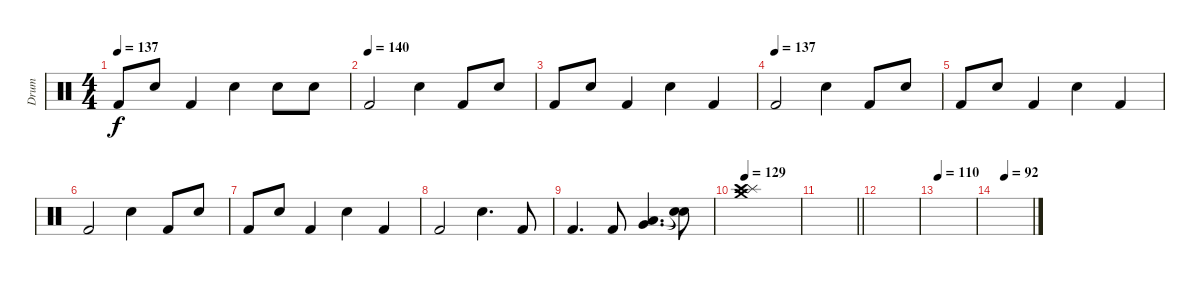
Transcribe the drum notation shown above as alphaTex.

\track ("Drum" "Drum") {instrument percussion}
\staff {score}
\articulation defaults
\ts (4 4)
\tempo 137
\clef neutral
\ks c "Kick (hit) 2".8{dy f} "Electric Snare (hit)".8 "Kick (hit) 2".4 "Electric Snare (hit)".4 "Electric Snare (hit)".8 "Electric Snare (hit)".8
|
\tempo (140)
"Kick (hit) 2".2 "Electric Snare (hit)".4 "Kick (hit) 2".8 "Electric Snare (hit)".8 |
"Kick (hit) 2".8 "Electric Snare (hit)".8 "Kick (hit) 2".4 "Electric Snare (hit)".4 "Kick (hit) 2".4 |
\tempo (137)
"Kick (hit) 2".2 "Electric Snare (hit)".4 "Kick (hit) 2".8 "Electric Snare (hit)".8 |
"Kick (hit) 2".8 "Electric Snare (hit)".8 "Kick (hit) 2".4 "Electric Snare (hit)".4 "Kick (hit) 2".4 |
"Kick (hit) 2".2 "Electric Snare (hit)".4 "Kick (hit) 2".8 "Electric Snare (hit)".8 |
"Kick (hit) 2".8 "Electric Snare (hit)".8 "Kick (hit) 2".4 "Electric Snare (hit)".4 "Kick (hit) 2".4 |
"Kick (hit) 2".2 "Electric Snare (hit)".4{d} "Kick (hit) 2".8 |
"Kick (hit) 2".4{d} "Kick (hit) 2".8 ("Low Floor Tom (hit)" "Very Low Tom (hit)").4{d} ("Snare (hit)"{t} "Snare (hit)"{t}).8 |
\tempo 129
("Splash (hit)" "Crash medium (hit)" "Crash high (hit)").1 |
\barLineRight lightlight
|
|
\tempo 110
|
\tempo (92 0.25)
